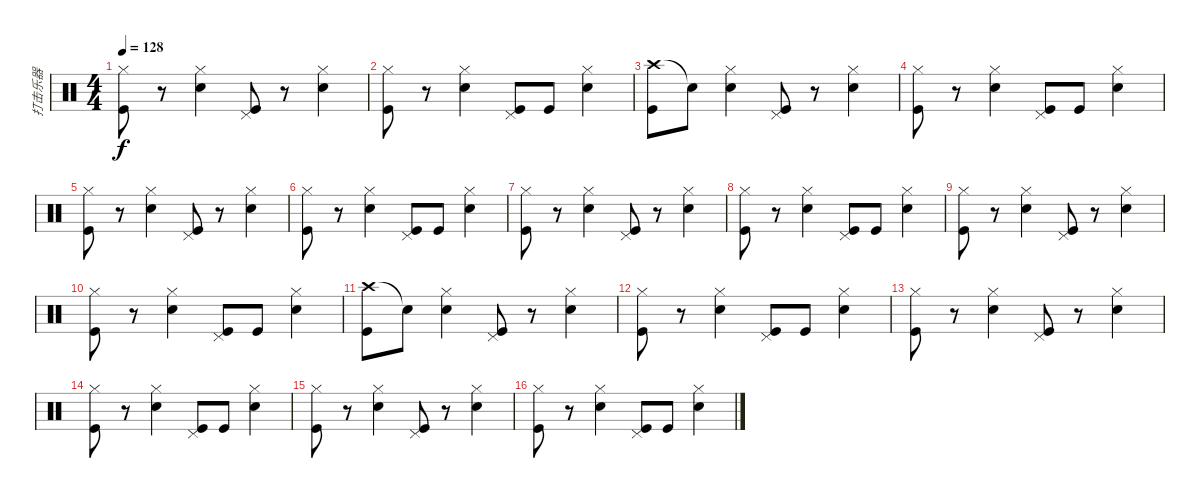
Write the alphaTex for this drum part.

\track ("打击乐器" "打击乐器") {instrument percussion}
\staff {score}
\articulation defaults
\ts (4 4)
\tempo 128
\clef neutral
\ks c
("Hi-Hat (closed)" "Kick (hit)").8{dy f} r.8 ("Hi-Hat (closed)" "Snare (hit) 2").4 ("Pedal Hi-Hat (hit)" "Kick (hit)").8 r.8 ("Hi-Hat (closed)" "Snare (hit) 2").4 |
("Hi-Hat (closed)" "Kick (hit)").8 r.8 ("Hi-Hat (closed)" "Snare (hit) 2").4 ("Pedal Hi-Hat (hit)" "Kick (hit)").8 "Kick (hit)".8 ("Hi-Hat (closed)" "Snare (hit) 2").4 |
("Crash high (hit)" "Kick (hit)").8 "Snare (hit)"{t}.8 ("Hi-Hat (closed)" "Snare (hit) 2").4 ("Pedal Hi-Hat (hit)" "Kick (hit)").8 r.8 ("Hi-Hat (closed)" "Snare (hit) 2").4 |
("Hi-Hat (closed)" "Kick (hit)").8 r.8 ("Hi-Hat (closed)" "Snare (hit) 2").4 ("Pedal Hi-Hat (hit)" "Kick (hit)").8 "Kick (hit)".8 ("Hi-Hat (closed)" "Snare (hit) 2").4 |
("Hi-Hat (closed)" "Kick (hit)").8 r.8 ("Hi-Hat (closed)" "Snare (hit) 2").4 ("Pedal Hi-Hat (hit)" "Kick (hit)").8 r.8 ("Hi-Hat (closed)" "Snare (hit) 2").4 |
("Hi-Hat (closed)" "Kick (hit)").8 r.8 ("Hi-Hat (closed)" "Snare (hit) 2").4 ("Pedal Hi-Hat (hit)" "Kick (hit)").8 "Kick (hit)".8 ("Hi-Hat (closed)" "Snare (hit) 2").4 |
("Hi-Hat (closed)" "Kick (hit)").8 r.8 ("Hi-Hat (closed)" "Snare (hit) 2").4 ("Pedal Hi-Hat (hit)" "Kick (hit)").8 r.8 ("Hi-Hat (closed)" "Snare (hit) 2").4 |
("Hi-Hat (closed)" "Kick (hit)").8 r.8 ("Hi-Hat (closed)" "Snare (hit) 2").4 ("Pedal Hi-Hat (hit)" "Kick (hit)").8 "Kick (hit)".8 ("Hi-Hat (closed)" "Snare (hit) 2").4 |
("Hi-Hat (closed)" "Kick (hit)").8 r.8 ("Hi-Hat (closed)" "Snare (hit) 2").4 ("Pedal Hi-Hat (hit)" "Kick (hit)").8 r.8 ("Hi-Hat (closed)" "Snare (hit) 2").4 |
("Hi-Hat (closed)" "Kick (hit)").8 r.8 ("Hi-Hat (closed)" "Snare (hit) 2").4 ("Pedal Hi-Hat (hit)" "Kick (hit)").8 "Kick (hit)".8 ("Hi-Hat (closed)" "Snare (hit) 2").4 |
("Crash high (hit)" "Kick (hit)").8 "Snare (hit)"{t}.8 ("Hi-Hat (closed)" "Snare (hit) 2").4 ("Pedal Hi-Hat (hit)" "Kick (hit)").8 r.8 ("Hi-Hat (closed)" "Snare (hit) 2").4 |
("Hi-Hat (closed)" "Kick (hit)").8 r.8 ("Hi-Hat (closed)" "Snare (hit) 2").4 ("Pedal Hi-Hat (hit)" "Kick (hit)").8 "Kick (hit)".8 ("Hi-Hat (closed)" "Snare (hit) 2").4 |
("Hi-Hat (closed)" "Kick (hit)").8 r.8 ("Hi-Hat (closed)" "Snare (hit) 2").4 ("Pedal Hi-Hat (hit)" "Kick (hit)").8 r.8 ("Hi-Hat (closed)" "Snare (hit) 2").4 |
("Hi-Hat (closed)" "Kick (hit)").8 r.8 ("Hi-Hat (closed)" "Snare (hit) 2").4 ("Pedal Hi-Hat (hit)" "Kick (hit)").8 "Kick (hit)".8 ("Hi-Hat (closed)" "Snare (hit) 2").4 |
("Hi-Hat (closed)" "Kick (hit)").8 r.8 ("Hi-Hat (closed)" "Snare (hit) 2").4 ("Pedal Hi-Hat (hit)" "Kick (hit)").8 r.8 ("Hi-Hat (closed)" "Snare (hit) 2").4 |
("Hi-Hat (closed)" "Kick (hit)").8 r.8 ("Hi-Hat (closed)" "Snare (hit) 2").4 ("Pedal Hi-Hat (hit)" "Kick (hit)").8 "Kick (hit)".8 ("Hi-Hat (closed)" "Snare (hit) 2").4
